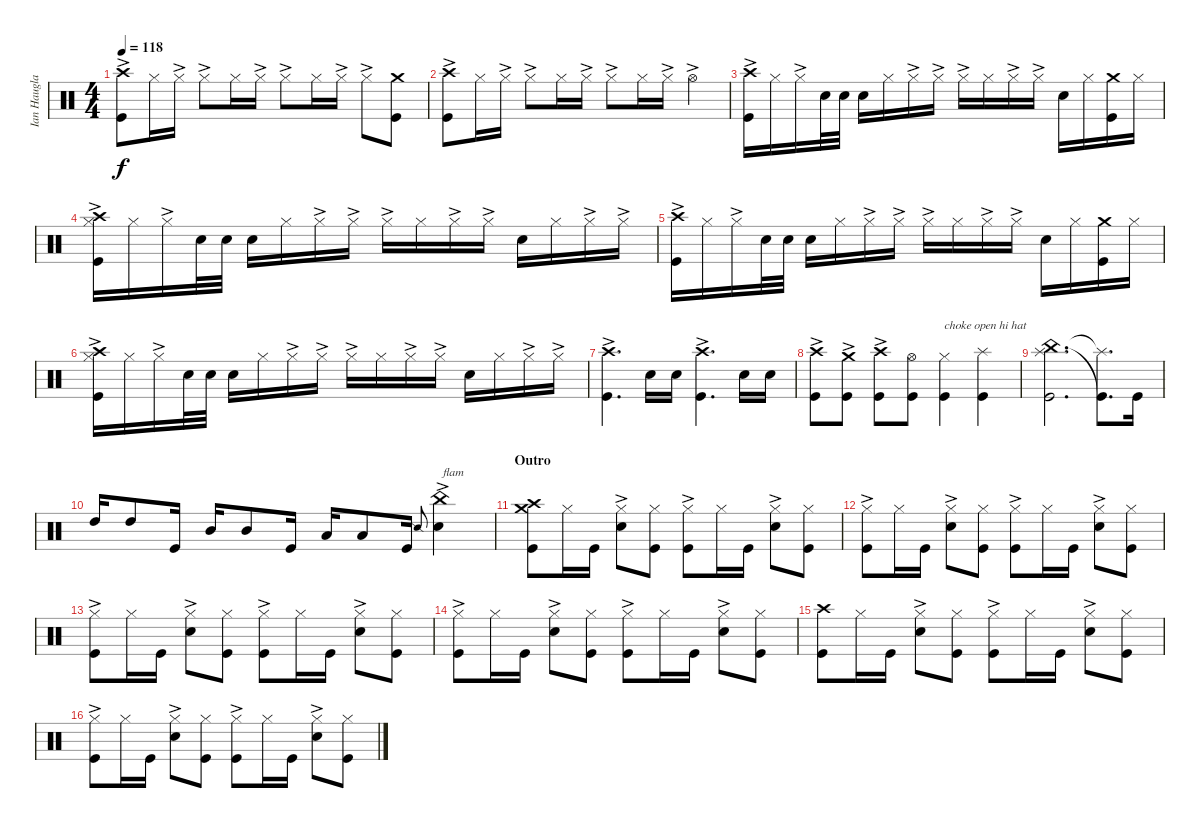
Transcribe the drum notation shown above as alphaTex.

\track ("Ian Haugland - Tama Imperialstar Kit - " "Ian Haugla") {instrument percussion}
\staff {score}
\articulation defaults
\ts (4 4)
\tempo 118
\clef neutral
\ks c
("Crash high (hit)"{ac} "Kick (hit)").8{dy f} "Hi-Hat (closed)".16 "Hi-Hat (closed)"{ac}.16 "Hi-Hat (closed)"{ac}.8 "Hi-Hat (closed)".16 "Hi-Hat (closed)"{ac}.16 "Hi-Hat (closed)"{ac}.8 "Hi-Hat (closed)".16 "Hi-Hat (closed)"{ac}.16 "Hi-Hat (closed)"{ac}.8 ("Crash medium (hit)" "Kick (hit)").8 |
("Crash high (hit)"{ac} "Kick (hit)").8 "Hi-Hat (closed)".16 "Hi-Hat (closed)"{ac}.16 "Hi-Hat (closed)"{ac}.8 "Hi-Hat (closed)".16 "Hi-Hat (closed)"{ac}.16 "Hi-Hat (closed)"{ac}.8 "Hi-Hat (closed)".16 "Hi-Hat (closed)"{ac}.16 "Hi-Hat (open)"{ac}.4 |
("Crash high (hit)"{ac} "Kick (hit)").16 "Hi-Hat (closed)".16 "Hi-Hat (closed)"{ac}.16 "Snare (hit) 2".32 "Snare (hit) 2".32 "Snare (hit) 2".16 "Hi-Hat (closed)".16 "Hi-Hat (closed)"{ac}.16 "Hi-Hat (closed)"{ac}.16 "Hi-Hat (closed)"{ac}.16 "Hi-Hat (closed)".16 "Hi-Hat (closed)"{ac}.16 "Hi-Hat (closed)"{ac}.16 "Snare (hit) 2".16 "Hi-Hat (closed)".16 ("Crash medium (hit)" "Kick (hit)").16 "Hi-Hat (closed)".16 |
("Crash high (hit)"{ac} "Hi-Hat (closed)" "Kick (hit)").16 "Hi-Hat (closed)".16 "Hi-Hat (closed)"{ac}.16 "Snare (hit) 2".32 "Snare (hit) 2".32 "Snare (hit) 2".16 "Hi-Hat (closed)".16 "Hi-Hat (closed)"{ac}.16 "Hi-Hat (closed)"{ac}.16 "Hi-Hat (closed)"{ac}.16 "Hi-Hat (closed)".16 "Hi-Hat (closed)"{ac}.16 "Hi-Hat (closed)"{ac}.16 "Snare (hit) 2".16 "Hi-Hat (closed)".16 "Hi-Hat (closed)"{ac}.16 "Hi-Hat (closed)"{ac}.16 |
("Crash high (hit)"{ac} "Kick (hit)").16 "Hi-Hat (closed)".16 "Hi-Hat (closed)"{ac}.16 "Snare (hit) 2".32 "Snare (hit) 2".32 "Snare (hit) 2".16 "Hi-Hat (closed)".16 "Hi-Hat (closed)"{ac}.16 "Hi-Hat (closed)"{ac}.16 "Hi-Hat (closed)"{ac}.16 "Hi-Hat (closed)".16 "Hi-Hat (closed)"{ac}.16 "Hi-Hat (closed)"{ac}.16 "Snare (hit) 2".16 "Hi-Hat (closed)".16 ("Crash medium (hit)" "Kick (hit)").16 "Hi-Hat (closed)".16 |
("Crash high (hit)"{ac} "Hi-Hat (closed)" "Kick (hit)").16 "Hi-Hat (closed)".16 "Hi-Hat (closed)"{ac}.16 "Snare (hit) 2".32 "Snare (hit) 2".32 "Snare (hit) 2".16 "Hi-Hat (closed)".16 "Hi-Hat (closed)"{ac}.16 "Hi-Hat (closed)"{ac}.16 "Hi-Hat (closed)"{ac}.16 "Hi-Hat (closed)".16 "Hi-Hat (closed)"{ac}.16 "Hi-Hat (closed)"{ac}.16 "Snare (hit) 2".16 "Hi-Hat (closed)".16 "Hi-Hat (closed)"{ac}.16 "Hi-Hat (closed)"{ac}.16 |
("Crash high (hit)"{ac} "Kick (hit)").4{d} "Snare (hit) 2".16 "Snare (hit) 2".16 ("Crash high (hit)"{ac} "Kick (hit)").4{d} "Snare (hit) 2".16 "Snare (hit) 2".16 |
("Crash high (hit)"{ac} "Kick (hit)").8 ("Crash medium (hit)"{ac} "Kick (hit)").8 ("Crash high (hit)"{ac} "Kick (hit)").8 ("Hi-Hat (open)" "Kick (hit)").8 ("Hi-Hat (closed)" "Kick (hit)").4{txt "choke open hi hat"} ("Splash (hit)" "Kick (hit)").4 |
("China (hit)" "Splash (hit)" "Kick (hit)").2{d} ("Splash (hit)"{t} "Kick (hit)"{t}).8{d} "Kick (hit)".16 |
"High Tom (hit)".16 "High Tom (hit)".8 "Kick (hit)".16 "Mid Tom (hit)".16 "Mid Tom (hit)".8 "Kick (hit)".16 "Low Floor Tom (hit)".16 "Low Floor Tom (hit)".8 "Kick (hit)".16 "Snare (side stick) 2".8{gr onbeat} ("China (hit)" "Snare (hit) 2"{ac}).4{txt "flam"} |
\section ("" "Outro")
("Crash high (hit)" "Crash medium (hit)" "Kick (hit)").8 "Hi-Hat (closed)".16 "Kick (hit)".16 ("Hi-Hat (closed)"{ac} "Snare (hit) 2").8 ("Hi-Hat (closed)" "Kick (hit)").8 ("Hi-Hat (closed)"{ac} "Kick (hit)").8 "Hi-Hat (closed)".16 "Kick (hit)".16 ("Hi-Hat (closed)"{ac} "Snare (hit) 2").8 ("Hi-Hat (closed)" "Kick (hit)").8 |
("Hi-Hat (closed)"{ac} "Kick (hit)").8 "Hi-Hat (closed)".16 "Kick (hit)".16 ("Hi-Hat (closed)"{ac} "Snare (hit) 2").8 ("Hi-Hat (closed)" "Kick (hit)").8 ("Hi-Hat (closed)"{ac} "Kick (hit)").8 "Hi-Hat (closed)".16 "Kick (hit)".16 ("Hi-Hat (closed)"{ac} "Snare (hit) 2").8 ("Hi-Hat (closed)" "Kick (hit)").8 |
("Hi-Hat (closed)"{ac} "Kick (hit)").8 "Hi-Hat (closed)".16 "Kick (hit)".16 ("Hi-Hat (closed)"{ac} "Snare (hit) 2").8 ("Hi-Hat (closed)" "Kick (hit)").8 ("Hi-Hat (closed)"{ac} "Kick (hit)").8 "Hi-Hat (closed)".16 "Kick (hit)".16 ("Hi-Hat (closed)"{ac} "Snare (hit) 2").8 ("Hi-Hat (closed)" "Kick (hit)").8 |
("Hi-Hat (closed)"{ac} "Kick (hit)").8 "Hi-Hat (closed)".16 "Kick (hit)".16 ("Hi-Hat (closed)"{ac} "Snare (hit) 2").8 ("Hi-Hat (closed)" "Kick (hit)").8 ("Hi-Hat (closed)"{ac} "Kick (hit)").8 "Hi-Hat (closed)".16 "Kick (hit)".16 ("Hi-Hat (closed)"{ac} "Snare (hit) 2").8 ("Hi-Hat (closed)" "Kick (hit)").8 |
("Crash high (hit)" "Kick (hit)").8 "Hi-Hat (closed)".16 "Kick (hit)".16 ("Hi-Hat (closed)"{ac} "Snare (hit) 2").8 ("Hi-Hat (closed)" "Kick (hit)").8 ("Hi-Hat (closed)"{ac} "Kick (hit)").8 "Hi-Hat (closed)".16 "Kick (hit)".16 ("Hi-Hat (closed)"{ac} "Snare (hit) 2").8 ("Hi-Hat (closed)" "Kick (hit)").8 |
("Hi-Hat (closed)"{ac} "Kick (hit)").8 "Hi-Hat (closed)".16 "Kick (hit)".16 ("Hi-Hat (closed)"{ac} "Snare (hit) 2").8 ("Hi-Hat (closed)" "Kick (hit)").8 ("Hi-Hat (closed)"{ac} "Kick (hit)").8 "Hi-Hat (closed)".16 "Kick (hit)".16 ("Hi-Hat (closed)"{ac} "Snare (hit) 2").8 ("Hi-Hat (closed)" "Kick (hit)").8
